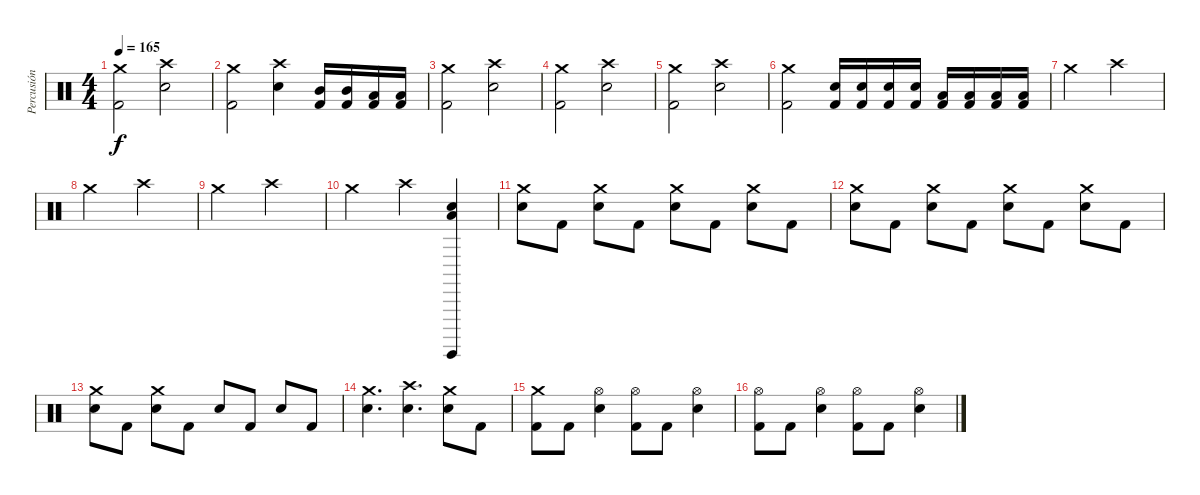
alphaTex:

\track ("Percusión" "Percusión") {instrument percussion}
\staff {score}
\articulation defaults
\ts (4 4)
\tempo 165
\clef neutral
\ks c
("Crash medium (hit)" "Kick (hit) 2").2{dy f} ("Crash high (hit)" "Electric Snare (hit)").2 |
("Crash medium (hit)" "Kick (hit) 2").2 ("Crash high (hit)" "Electric Snare (hit)").4 ("Mid Tom (hit)" "Kick (hit) 2").16 ("Mid Tom (hit)" "Kick (hit) 2").16 ("Low Tom (hit)" "Kick (hit) 2").16 ("Low Tom (hit)" "Kick (hit) 2").16 |
("Crash medium (hit)" "Kick (hit) 2").2 ("Crash high (hit)" "Electric Snare (hit)").2 |
("Crash medium (hit)" "Kick (hit) 2").2 ("Crash high (hit)" "Electric Snare (hit)").2 |
("Crash medium (hit)" "Kick (hit) 2").2 ("Crash high (hit)" "Electric Snare (hit)").2 |
("Crash medium (hit)" "Kick (hit) 2").2 ("Electric Snare (hit)" "Kick (hit) 2").16 ("Electric Snare (hit)" "Kick (hit) 2").16 ("Electric Snare (hit)" "Kick (hit) 2").16 ("Electric Snare (hit)" "Kick (hit) 2").16 ("Low Tom (hit)" "Kick (hit) 2").16 ("Low Tom (hit)" "Kick (hit) 2").16 ("Low Tom (hit)" "Kick (hit) 2").16 ("Low Tom (hit)" "Kick (hit) 2").16 |
"Crash medium (hit)".2 "Crash high (hit)".2 |
"Crash medium (hit)".2 "Crash high (hit)".2 |
"Crash medium (hit)".2 "Crash high (hit)".2 |
"Crash medium (hit)".2 "Crash high (hit)".4 ("Surdo (hit)" "Low Tom (hit)" "Electric Snare (hit)").4 |
("Crash medium (hit)" "Electric Snare (hit)").8 "Kick (hit) 2".8 ("Crash medium (hit)" "Electric Snare (hit)").8 "Kick (hit) 2".8 ("Crash medium (hit)" "Electric Snare (hit)").8 "Kick (hit) 2".8 ("Crash medium (hit)" "Electric Snare (hit)").8 "Kick (hit) 2".8 |
("Crash medium (hit)" "Electric Snare (hit)").8 "Kick (hit) 2".8 ("Crash medium (hit)" "Electric Snare (hit)").8 "Kick (hit) 2".8 ("Crash medium (hit)" "Electric Snare (hit)").8 "Kick (hit) 2".8 ("Crash medium (hit)" "Electric Snare (hit)").8 "Kick (hit) 2".8 |
("Crash medium (hit)" "Electric Snare (hit)").8 "Kick (hit) 2".8 ("Crash medium (hit)" "Electric Snare (hit)").8 "Kick (hit) 2".8 "Electric Snare (hit)".8 "Kick (hit) 2".8 "Electric Snare (hit)".8 "Kick (hit) 2".8 |
("Crash medium (hit)" "Electric Snare (hit)").4{d} ("Crash high (hit)" "Electric Snare (hit)").4{d} ("Crash medium (hit)" "Electric Snare (hit)").8 "Kick (hit) 2".8 |
("Crash medium (hit)" "Kick (hit) 2").8 "Kick (hit) 2".8 ("Hi-Hat (open)" "Electric Snare (hit)").4 ("Hi-Hat (open)" "Kick (hit) 2").8 "Kick (hit) 2".8 ("Hi-Hat (open)" "Electric Snare (hit)").4 |
("Hi-Hat (open)" "Kick (hit) 2").8 "Kick (hit) 2".8 ("Hi-Hat (open)" "Electric Snare (hit)").4 ("Hi-Hat (open)" "Kick (hit) 2").8 "Kick (hit) 2".8 ("Hi-Hat (open)" "Electric Snare (hit)").4
